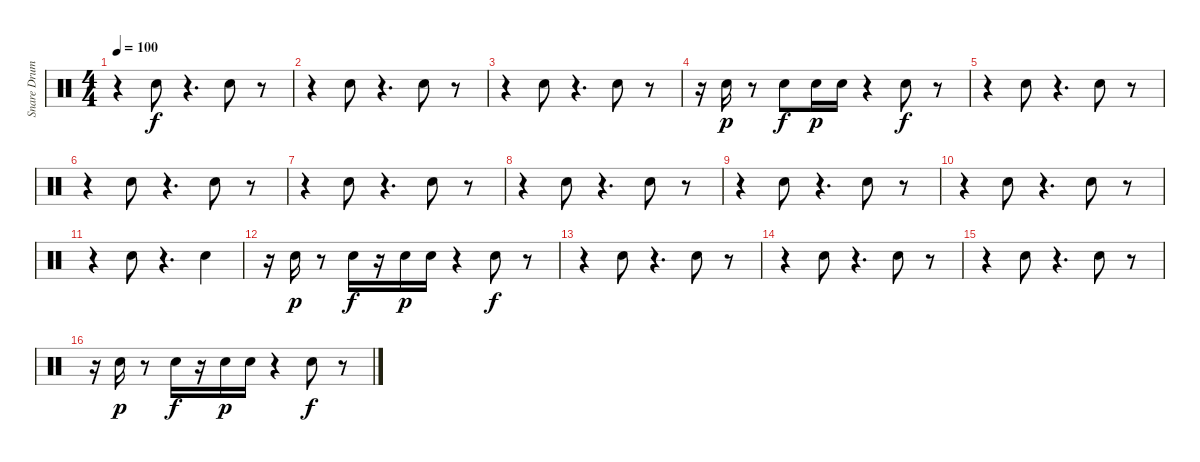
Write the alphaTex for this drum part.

\track ("Snare Drum" "Snare Drum") {instrument percussion}
\staff {score}
\articulation defaults
\ts (4 4)
\tempo 100
\clef neutral
\ks c
r.4{dy f} "Snare (hit) 2".8 r.4{d} "Snare (hit) 2".8 r.8 |
r.4 "Snare (hit) 2".8 r.4{d} "Snare (hit) 2".8 r.8 |
r.4 "Snare (hit) 2".8 r.4{d} "Snare (hit) 2".8 r.8 |
r.16 "Snare (hit) 2".16{dy p} r.8 "Snare (hit) 2".8{dy f} "Snare (hit) 2".16{dy p} "Snare (hit) 2".16 r.4 "Snare (hit) 2".8{dy f} r.8 |
r.4 "Snare (hit) 2".8 r.4{d} "Snare (hit) 2".8 r.8 |
r.4 "Snare (hit) 2".8 r.4{d} "Snare (hit) 2".8 r.8 |
r.4 "Snare (hit) 2".8 r.4{d} "Snare (hit) 2".8 r.8 |
r.4 "Snare (hit) 2".8 r.4{d} "Snare (hit) 2".8 r.8 |
r.4 "Snare (hit) 2".8 r.4{d} "Snare (hit) 2".8 r.8 |
r.4 "Snare (hit) 2".8 r.4{d} "Snare (hit) 2".8 r.8 |
r.4 "Snare (hit) 2".8 r.4{d} "Snare (hit) 2".4 |
r.16 "Snare (hit) 2".16{dy p} r.8 "Snare (hit) 2".16{dy f} r.16 "Snare (hit) 2".16{dy p} "Snare (hit) 2".16 r.4 "Snare (hit) 2".8{dy f} r.8 |
r.4 "Snare (hit) 2".8 r.4{d} "Snare (hit) 2".8 r.8 |
r.4 "Snare (hit) 2".8 r.4{d} "Snare (hit) 2".8 r.8 |
r.4 "Snare (hit) 2".8 r.4{d} "Snare (hit) 2".8 r.8 |
r.16 "Snare (hit) 2".16{dy p} r.8 "Snare (hit) 2".16{dy f} r.16 "Snare (hit) 2".16{dy p} "Snare (hit) 2".16 r.4 "Snare (hit) 2".8{dy f} r.8
